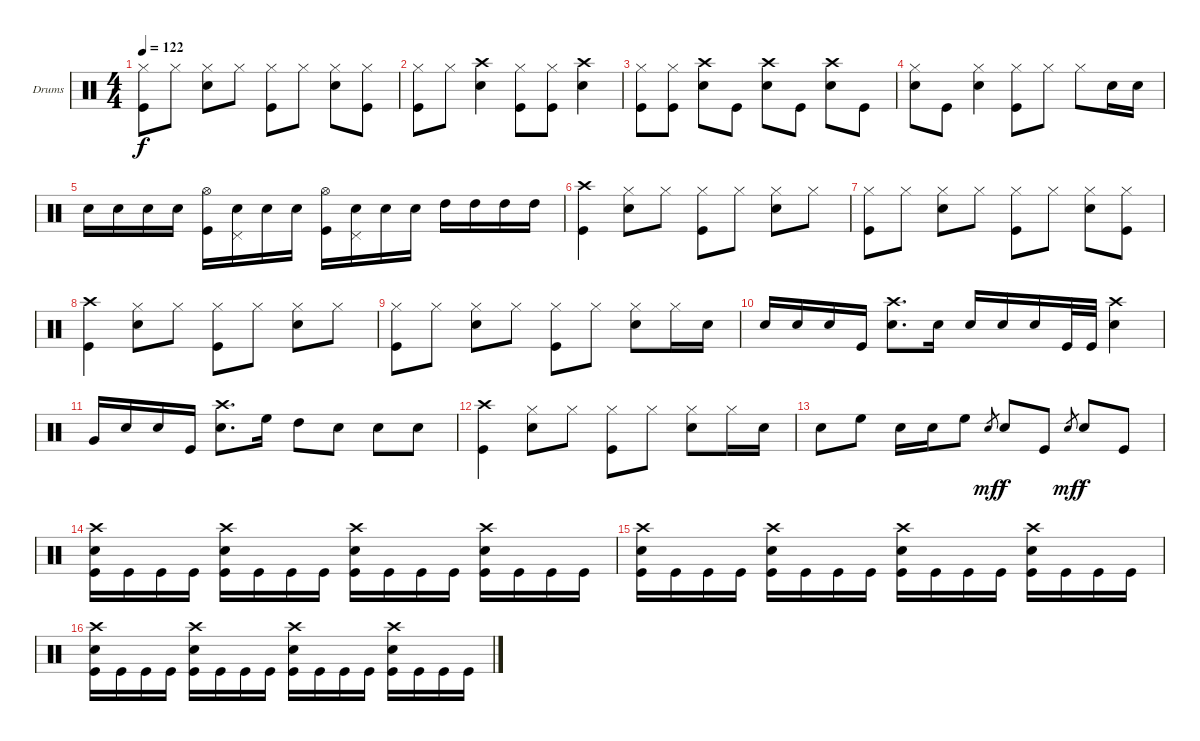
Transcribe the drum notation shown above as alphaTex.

\bracketExtendMode groupsimilarinstruments
\firstSystemTrackNameOrientation horizontal
\otherSystemsTrackNameOrientation horizontal
\track ("Drumkit" "Drums") {instrument percussion}
\staff {score}
\articulation defaults
\ts (4 4)
\tempo 122
\clef neutral
\ks c
("Kick (hit)" "Hi-Hat (closed)").8{dy f} "Hi-Hat (closed)".8 ("Snare (hit) 2" "Hi-Hat (closed)").8 "Hi-Hat (closed)".8 ("Kick (hit)" "Hi-Hat (closed)").8 "Hi-Hat (closed)".8 ("Snare (hit) 2" "Hi-Hat (closed)").8 ("Kick (hit)" "Hi-Hat (closed)").8 |
("Kick (hit)" "Hi-Hat (closed)").8 "Hi-Hat (closed)".8 ("Snare (hit) 2" "Crash high (hit)").4 ("Kick (hit)" "Hi-Hat (closed)").8 ("Kick (hit)" "Hi-Hat (closed)").8 ("Snare (hit) 2" "Crash high (hit)").4 |
("Kick (hit)" "Hi-Hat (closed)").8 ("Kick (hit)" "Hi-Hat (closed)").8 ("Snare (hit) 2" "Crash high (hit)").8 "Kick (hit)".8 ("Snare (hit) 2" "Crash high (hit)").8 "Kick (hit)".8 ("Snare (hit) 2" "Crash high (hit)").8 "Kick (hit)".8 |
("Snare (hit) 2" "Hi-Hat (closed)").8 "Kick (hit)".8 ("Snare (hit) 2" "Hi-Hat (closed)").4 ("Kick (hit)" "Hi-Hat (closed)").8 "Hi-Hat (closed)".8 "Hi-Hat (closed)".8 "Snare (hit) 2".16 "Snare (hit) 2".16 |
"Snare (hit) 2".16 "Snare (hit) 2".16 "Snare (hit) 2".16 "Snare (hit) 2".16 ("Kick (hit)" "Hi-Hat (open)").16 ("Snare (hit) 2" "Pedal Hi-Hat (hit)").16 "Snare (hit) 2".16 "Snare (hit) 2".16 ("Kick (hit)" "Hi-Hat (open)").16 ("Snare (hit) 2" "Pedal Hi-Hat (hit)").16 "Snare (hit) 2".16 "Snare (hit) 2".16 "High Tom (hit)".16 "High Tom (hit)".16 "High Tom (hit)".16 "High Tom (hit)".16 |
("Kick (hit)" "Crash high (hit)").4 ("Snare (hit) 2" "Hi-Hat (closed)").8 "Hi-Hat (closed)".8 ("Kick (hit)" "Hi-Hat (closed)").8 "Hi-Hat (closed)".8 ("Snare (hit) 2" "Hi-Hat (closed)").8 "Hi-Hat (closed)".8 |
("Kick (hit)" "Hi-Hat (closed)").8 "Hi-Hat (closed)".8 ("Snare (hit) 2" "Hi-Hat (closed)").8 "Hi-Hat (closed)".8 ("Kick (hit)" "Hi-Hat (closed)").8 "Hi-Hat (closed)".8 ("Snare (hit) 2" "Hi-Hat (closed)").8 ("Kick (hit)" "Hi-Hat (closed)").8 |
("Kick (hit)" "Crash high (hit)").4 ("Snare (hit) 2" "Hi-Hat (closed)").8 "Hi-Hat (closed)".8 ("Kick (hit)" "Hi-Hat (closed)").8 "Hi-Hat (closed)".8 ("Snare (hit) 2" "Hi-Hat (closed)").8 "Hi-Hat (closed)".8 |
("Kick (hit)" "Hi-Hat (closed)").8 "Hi-Hat (closed)".8 ("Snare (hit) 2" "Hi-Hat (closed)").8 "Hi-Hat (closed)".8 ("Kick (hit)" "Hi-Hat (closed)").8 "Hi-Hat (closed)".8 ("Snare (hit) 2" "Hi-Hat (closed)").8 "Hi-Hat (closed)".16 "Snare (hit) 2".16 |
"Snare (hit) 2".16 "Snare (hit) 2".16 "Snare (hit) 2".16 "Kick (hit)".16 ("Snare (hit) 2" "Crash high (hit)").8{d} "Snare (hit) 2".16 "Snare (hit) 2".16 "Snare (hit) 2".16 "Snare (hit) 2".16 "Kick (hit)".32 "Kick (hit)".32 ("Snare (hit) 2" "Crash high (hit)").4 |
"Very Low Tom (hit)".16 "Snare (hit) 2".16 "Snare (hit) 2".16 "Kick (hit)".16 ("Snare (hit) 2" "Crash high (hit)").8{d} "High Floor Tom (hit)".16 "High Tom (hit)".8 "Snare (hit) 2".8 "Snare (hit) 2".8 "Snare (hit) 2".8 |
("Kick (hit)" "Crash high (hit)").4 ("Snare (hit) 2" "Hi-Hat (closed)").8 "Hi-Hat (closed)".8 ("Kick (hit)" "Hi-Hat (closed)").8 "Hi-Hat (closed)".8 ("Snare (hit) 2" "Hi-Hat (closed)").8 "Hi-Hat (closed)".16 "Snare (hit) 2".16 |
"Snare (hit) 2".8 "High Floor Tom (hit)".8 "Snare (hit) 2".16 "Snare (hit) 2".16 "High Floor Tom (hit)".8 "Snare (hit) 2".8{gr dy mf} "Snare (hit) 2".8{dy f} "Kick (hit)".8 "Snare (hit) 2".8{gr dy mf} "Snare (hit) 2".8{dy f} "Kick (hit)".8 |
("Kick (hit)" "Snare (hit) 2" "Crash high (hit)").16 "Kick (hit)".16 "Kick (hit)".16 "Kick (hit)".16 ("Kick (hit)" "Snare (hit) 2" "Crash high (hit)").16 "Kick (hit)".16 "Kick (hit)".16 "Kick (hit)".16 ("Kick (hit)" "Snare (hit) 2" "Crash high (hit)").16 "Kick (hit)".16 "Kick (hit)".16 "Kick (hit)".16 ("Kick (hit)" "Snare (hit) 2" "Crash high (hit)").16 "Kick (hit)".16 "Kick (hit)".16 "Kick (hit)".16 |
("Kick (hit)" "Snare (hit) 2" "Crash high (hit)").16 "Kick (hit)".16 "Kick (hit)".16 "Kick (hit)".16 ("Kick (hit)" "Snare (hit) 2" "Crash high (hit)").16 "Kick (hit)".16 "Kick (hit)".16 "Kick (hit)".16 ("Kick (hit)" "Snare (hit) 2" "Crash high (hit)").16 "Kick (hit)".16 "Kick (hit)".16 "Kick (hit)".16 ("Kick (hit)" "Snare (hit) 2" "Crash high (hit)").16 "Kick (hit)".16 "Kick (hit)".16 "Kick (hit)".16 |
("Kick (hit)" "Snare (hit) 2" "Crash high (hit)").16 "Kick (hit)".16 "Kick (hit)".16 "Kick (hit)".16 ("Kick (hit)" "Snare (hit) 2" "Crash high (hit)").16 "Kick (hit)".16 "Kick (hit)".16 "Kick (hit)".16 ("Kick (hit)" "Snare (hit) 2" "Crash high (hit)").16 "Kick (hit)".16 "Kick (hit)".16 "Kick (hit)".16 ("Kick (hit)" "Snare (hit) 2" "Crash high (hit)").16 "Kick (hit)".16 "Kick (hit)".16 "Kick (hit)".16
